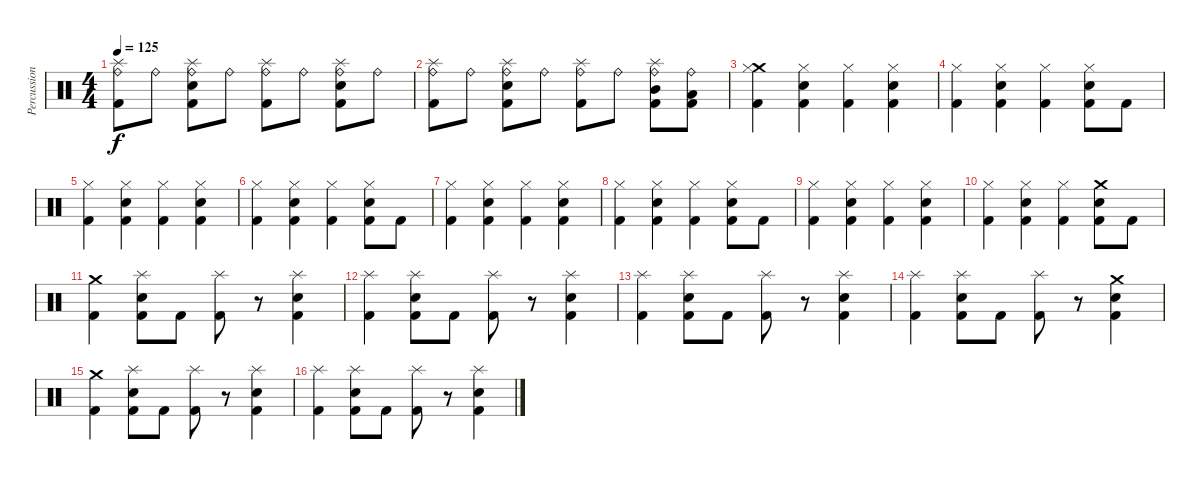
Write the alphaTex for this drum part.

\track ("Percussion" "Percussion") {instrument percussion}
\staff {score}
\articulation defaults
\ts (4 4)
\tempo 125
\clef neutral
\ks c
("Splash (hit)" "Ride (bell)" "Kick (hit) 2").8{dy f} "Ride (bell)".8 ("Splash (hit)" "Ride (bell)" "Snare (hit) 2" "Kick (hit) 2").8 "Ride (bell)".8 ("Splash (hit)" "Ride (bell)" "Kick (hit) 2").8 "Ride (bell)".8 ("Splash (hit)" "Ride (bell)" "Snare (hit) 2" "Kick (hit) 2").8 "Ride (bell)".8 |
("Splash (hit)" "Ride (bell)" "Kick (hit) 2").8 "Ride (bell)".8 ("Splash (hit)" "Ride (bell)" "Snare (hit) 2" "Kick (hit) 2").8 "Ride (bell)".8 ("Splash (hit)" "Ride (bell)" "Kick (hit) 2").8 "Ride (bell)".8 ("Splash (hit)" "Ride (bell)" "Mid Tom (hit)" "Kick (hit) 2").8 ("Ride (bell)" "Low Tom (hit)" "Kick (hit) 2").8 |
("Crash medium (hit)" "Hi-Hat (closed)" "Kick (hit) 2").4 ("Hi-Hat (closed)" "Snare (hit) 2" "Kick (hit) 2").4 ("Hi-Hat (closed)" "Kick (hit) 2").4 ("Hi-Hat (closed)" "Snare (hit) 2" "Kick (hit) 2").4 |
("Hi-Hat (closed)" "Kick (hit) 2").4 ("Hi-Hat (closed)" "Snare (hit) 2" "Kick (hit) 2").4 ("Hi-Hat (closed)" "Kick (hit) 2").4 ("Hi-Hat (closed)" "Snare (hit) 2" "Kick (hit) 2").8 "Kick (hit) 2".8 |
("Hi-Hat (closed)" "Kick (hit) 2").4 ("Hi-Hat (closed)" "Snare (hit) 2" "Kick (hit) 2").4 ("Hi-Hat (closed)" "Kick (hit) 2").4 ("Hi-Hat (closed)" "Snare (hit) 2" "Kick (hit) 2").4 |
("Hi-Hat (closed)" "Kick (hit) 2").4 ("Hi-Hat (closed)" "Snare (hit) 2" "Kick (hit) 2").4 ("Hi-Hat (closed)" "Kick (hit) 2").4 ("Hi-Hat (closed)" "Snare (hit) 2" "Kick (hit) 2").8 "Kick (hit) 2".8 |
("Hi-Hat (closed)" "Kick (hit) 2").4 ("Hi-Hat (closed)" "Snare (hit) 2" "Kick (hit) 2").4 ("Hi-Hat (closed)" "Kick (hit) 2").4 ("Hi-Hat (closed)" "Snare (hit) 2" "Kick (hit) 2").4 |
("Hi-Hat (closed)" "Kick (hit) 2").4 ("Hi-Hat (closed)" "Snare (hit) 2" "Kick (hit) 2").4 ("Hi-Hat (closed)" "Kick (hit) 2").4 ("Hi-Hat (closed)" "Snare (hit) 2" "Kick (hit) 2").8 "Kick (hit) 2".8 |
("Hi-Hat (closed)" "Kick (hit) 2").4 ("Hi-Hat (closed)" "Snare (hit) 2" "Kick (hit) 2").4 ("Hi-Hat (closed)" "Kick (hit) 2").4 ("Hi-Hat (closed)" "Snare (hit) 2" "Kick (hit) 2").4 |
("Hi-Hat (closed)" "Kick (hit) 2").4 ("Hi-Hat (closed)" "Snare (hit) 2" "Kick (hit) 2").4 ("Hi-Hat (closed)" "Kick (hit) 2").4 ("Crash medium (hit)" "Snare (hit) 2" "Kick (hit) 2").8 "Kick (hit) 2".8 |
("Crash medium (hit)" "Kick (hit) 2").4 ("Splash (hit)" "Snare (hit) 2" "Kick (hit) 2").8 "Kick (hit) 2".8 ("Splash (hit)" "Kick (hit) 2").8 r.8 ("Splash (hit)" "Snare (hit) 2" "Kick (hit) 2").4 |
("Splash (hit)" "Kick (hit) 2").4 ("Splash (hit)" "Snare (hit) 2" "Kick (hit) 2").8 "Kick (hit) 2".8 ("Splash (hit)" "Kick (hit) 2").8 r.8 ("Splash (hit)" "Snare (hit) 2" "Kick (hit) 2").4 |
("Splash (hit)" "Kick (hit) 2").4 ("Splash (hit)" "Snare (hit) 2" "Kick (hit) 2").8 "Kick (hit) 2".8 ("Splash (hit)" "Kick (hit) 2").8 r.8 ("Splash (hit)" "Snare (hit) 2" "Kick (hit) 2").4 |
("Splash (hit)" "Kick (hit) 2").4 ("Splash (hit)" "Snare (hit) 2" "Kick (hit) 2").8 "Kick (hit) 2".8 ("Splash (hit)" "Kick (hit) 2").8 r.8 ("Crash medium (hit)" "Snare (hit) 2" "Kick (hit) 2").4 |
("Crash medium (hit)" "Kick (hit) 2").4 ("Splash (hit)" "Snare (hit) 2" "Kick (hit) 2").8 "Kick (hit) 2".8 ("Splash (hit)" "Kick (hit) 2").8 r.8 ("Splash (hit)" "Snare (hit) 2" "Kick (hit) 2").4 |
("Splash (hit)" "Kick (hit) 2").4 ("Splash (hit)" "Snare (hit) 2" "Kick (hit) 2").8 "Kick (hit) 2".8 ("Splash (hit)" "Kick (hit) 2").8 r.8 ("Splash (hit)" "Snare (hit) 2" "Kick (hit) 2").4
